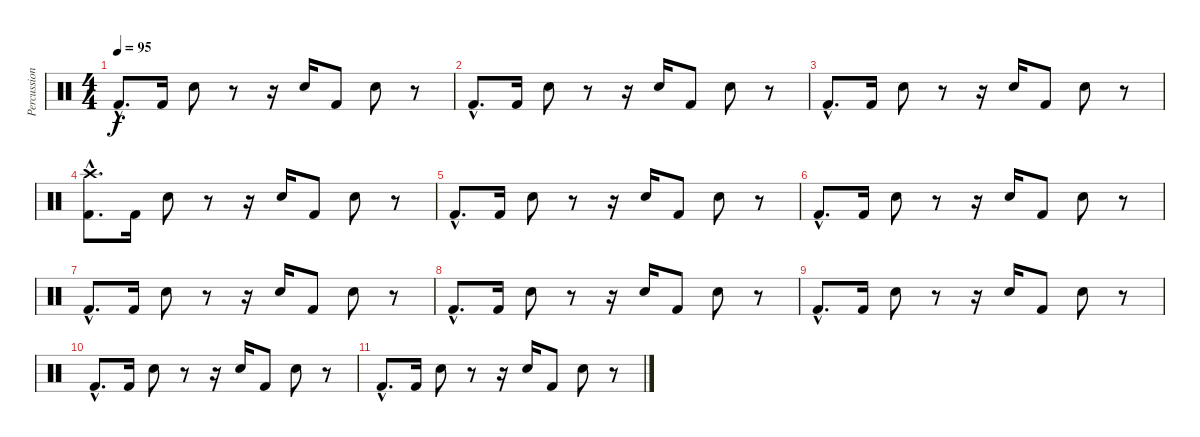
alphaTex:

\track ("Percussions" "Percussion") {instrument percussion}
\staff {score}
\articulation defaults
\ts (4 4)
\tempo 95
\clef neutral
\ks c "Kick (hit) 2"{hac}.8{d dy f} "Kick (hit) 2".16 "Electric Snare (hit)".8
r.8 r.16 "Electric Snare (hit)".16 "Kick (hit) 2".8 "Electric Snare (hit)".8 r.8 |
"Kick (hit) 2"{hac}.8{d} "Kick (hit) 2".16 "Electric Snare (hit)".8 r.8 r.16 "Electric Snare (hit)".16 "Kick (hit) 2".8 "Electric Snare (hit)".8 r.8 |
"Kick (hit) 2"{hac}.8{d} "Kick (hit) 2".16 "Electric Snare (hit)".8 r.8 r.16 "Electric Snare (hit)".16 "Kick (hit) 2".8 "Electric Snare (hit)".8 r.8 |
("Crash high (hit)"{hac} "Kick (hit) 2"{hac}).8{d} "Kick (hit) 2".16 "Electric Snare (hit)".8 r.8 r.16 "Electric Snare (hit)".16 "Kick (hit) 2".8 "Electric Snare (hit)".8 r.8 |
"Kick (hit) 2"{hac}.8{d} "Kick (hit) 2".16 "Electric Snare (hit)".8 r.8 r.16 "Electric Snare (hit)".16 "Kick (hit) 2".8 "Electric Snare (hit)".8 r.8 |
"Kick (hit) 2"{hac}.8{d} "Kick (hit) 2".16 "Electric Snare (hit)".8 r.8 r.16 "Electric Snare (hit)".16 "Kick (hit) 2".8 "Electric Snare (hit)".8 r.8 |
"Kick (hit) 2"{hac}.8{d} "Kick (hit) 2".16 "Electric Snare (hit)".8 r.8 r.16 "Electric Snare (hit)".16 "Kick (hit) 2".8 "Electric Snare (hit)".8 r.8 |
"Kick (hit) 2"{hac}.8{d} "Kick (hit) 2".16 "Electric Snare (hit)".8 r.8 r.16 "Electric Snare (hit)".16 "Kick (hit) 2".8 "Electric Snare (hit)".8 r.8 |
"Kick (hit) 2"{hac}.8{d} "Kick (hit) 2".16 "Electric Snare (hit)".8 r.8 r.16 "Electric Snare (hit)".16 "Kick (hit) 2".8 "Electric Snare (hit)".8 r.8 |
"Kick (hit) 2"{hac}.8{d} "Kick (hit) 2".16 "Electric Snare (hit)".8 r.8 r.16 "Electric Snare (hit)".16 "Kick (hit) 2".8 "Electric Snare (hit)".8 r.8 |
"Kick (hit) 2"{hac}.8{d} "Kick (hit) 2".16 "Electric Snare (hit)".8 r.8 r.16 "Electric Snare (hit)".16 "Kick (hit) 2".8 "Electric Snare (hit)".8 r.8
